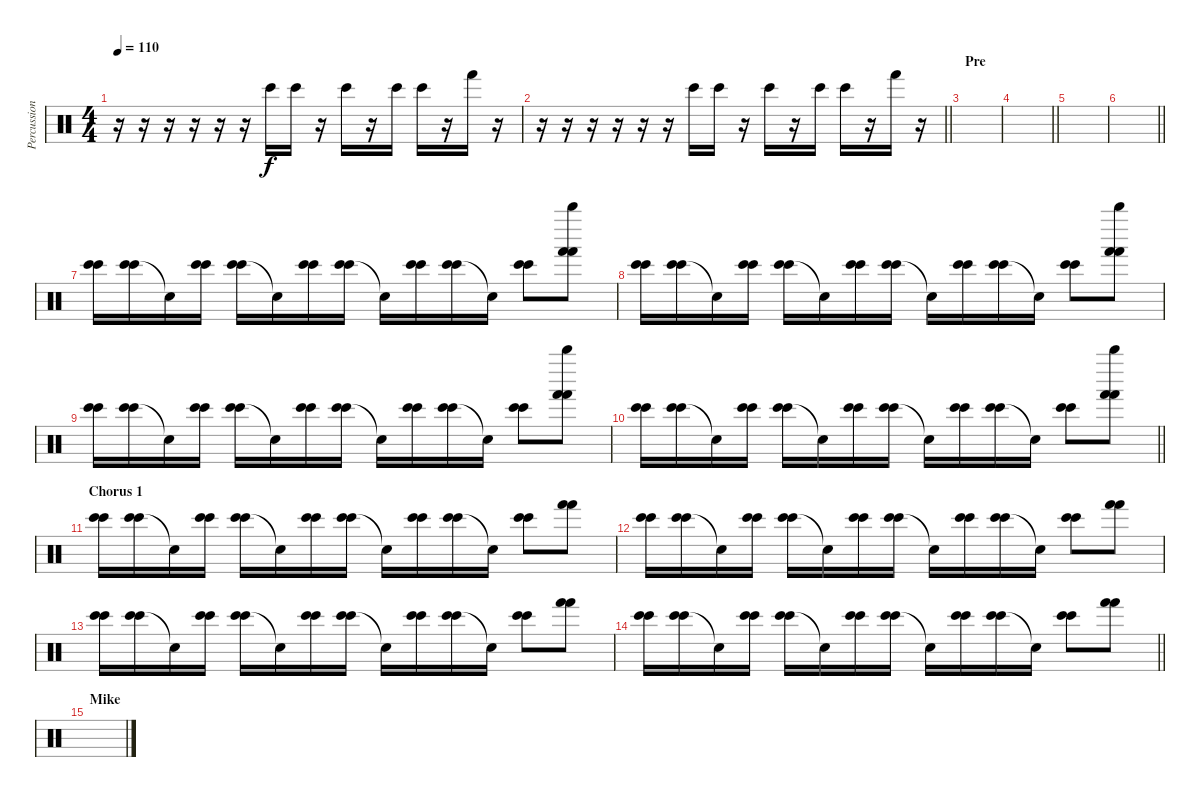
\track ("Percussions" "Percussion") {instrument percussion}
\staff {score}
\articulation defaults
\ts (4 4)
\tempo 110
\clef neutral
\ks c
r.16{dy f} r.16 r.16 r.16 r.16 r.16 "Bongo High (hit)".16 "Bongo High (hit)".16 r.16 "Bongo High (hit)".16 r.16 "Bongo High (hit)".16 "Bongo High (hit)".16 r.16 "Hand (hit)".16 r.16 |
\barLineRight lightlight
r.16 r.16 r.16 r.16 r.16 r.16 "Bongo High (hit)".16 "Bongo High (hit)".16 r.16 "Bongo High (hit)".16 r.16 "Bongo High (hit)".16 "Bongo High (hit)".16 r.16 "Hand (hit)".16 r.16 |
\section ("" "Pre")
|
\barLineRight lightlight
|
|
\barLineRight lightlight
|
\section ("" "")
("Bongo High (hit)" "Bongo High (hit)").16 ("Bongo High (hit)" "Bongo High (hit)").16 "Snare (hit)"{t}.16 ("Bongo High (hit)" "Bongo High (hit)").16 ("Bongo High (hit)" "Bongo High (hit)").16 "Snare (hit)"{t}.16 ("Bongo High (hit)" "Bongo High (hit)").16 ("Bongo High (hit)" "Bongo High (hit)").16 "Snare (hit)"{t}.16 ("Bongo High (hit)" "Bongo High (hit)").16 ("Bongo High (hit)" "Bongo High (hit)").16 "Snare (hit)"{t}.16 ("Bongo High (hit)" "Bongo High (hit)").8 ("Whistle high (hit)" "Hand (hit)" "Hand (hit)").8 |
("Bongo High (hit)" "Bongo High (hit)").16 ("Bongo High (hit)" "Bongo High (hit)").16 "Snare (hit)"{t}.16 ("Bongo High (hit)" "Bongo High (hit)").16 ("Bongo High (hit)" "Bongo High (hit)").16 "Snare (hit)"{t}.16 ("Bongo High (hit)" "Bongo High (hit)").16 ("Bongo High (hit)" "Bongo High (hit)").16 "Snare (hit)"{t}.16 ("Bongo High (hit)" "Bongo High (hit)").16 ("Bongo High (hit)" "Bongo High (hit)").16 "Snare (hit)"{t}.16 ("Bongo High (hit)" "Bongo High (hit)").8 ("Whistle high (hit)" "Hand (hit)" "Hand (hit)").8 |
("Bongo High (hit)" "Bongo High (hit)").16 ("Bongo High (hit)" "Bongo High (hit)").16 "Snare (hit)"{t}.16 ("Bongo High (hit)" "Bongo High (hit)").16 ("Bongo High (hit)" "Bongo High (hit)").16 "Snare (hit)"{t}.16 ("Bongo High (hit)" "Bongo High (hit)").16 ("Bongo High (hit)" "Bongo High (hit)").16 "Snare (hit)"{t}.16 ("Bongo High (hit)" "Bongo High (hit)").16 ("Bongo High (hit)" "Bongo High (hit)").16 "Snare (hit)"{t}.16 ("Bongo High (hit)" "Bongo High (hit)").8 ("Whistle high (hit)" "Hand (hit)" "Hand (hit)").8 |
\barLineRight lightlight
("Bongo High (hit)" "Bongo High (hit)").16 ("Bongo High (hit)" "Bongo High (hit)").16 "Snare (hit)"{t}.16 ("Bongo High (hit)" "Bongo High (hit)").16 ("Bongo High (hit)" "Bongo High (hit)").16 "Snare (hit)"{t}.16 ("Bongo High (hit)" "Bongo High (hit)").16 ("Bongo High (hit)" "Bongo High (hit)").16 "Snare (hit)"{t}.16 ("Bongo High (hit)" "Bongo High (hit)").16 ("Bongo High (hit)" "Bongo High (hit)").16 "Snare (hit)"{t}.16 ("Bongo High (hit)" "Bongo High (hit)").8 ("Whistle high (hit)" "Hand (hit)" "Hand (hit)").8 |
\section ("" "Chorus 1")
("Bongo High (hit)" "Bongo High (hit)").16 ("Bongo High (hit)" "Bongo High (hit)").16 "Snare (hit)"{t}.16 ("Bongo High (hit)" "Bongo High (hit)").16 ("Bongo High (hit)" "Bongo High (hit)").16 "Snare (hit)"{t}.16 ("Bongo High (hit)" "Bongo High (hit)").16 ("Bongo High (hit)" "Bongo High (hit)").16 "Snare (hit)"{t}.16 ("Bongo High (hit)" "Bongo High (hit)").16 ("Bongo High (hit)" "Bongo High (hit)").16 "Snare (hit)"{t}.16 ("Bongo High (hit)" "Bongo High (hit)").8 ("Hand (hit)" "Hand (hit)").8 |
("Bongo High (hit)" "Bongo High (hit)").16 ("Bongo High (hit)" "Bongo High (hit)").16 "Snare (hit)"{t}.16 ("Bongo High (hit)" "Bongo High (hit)").16 ("Bongo High (hit)" "Bongo High (hit)").16 "Snare (hit)"{t}.16 ("Bongo High (hit)" "Bongo High (hit)").16 ("Bongo High (hit)" "Bongo High (hit)").16 "Snare (hit)"{t}.16 ("Bongo High (hit)" "Bongo High (hit)").16 ("Bongo High (hit)" "Bongo High (hit)").16 "Snare (hit)"{t}.16 ("Bongo High (hit)" "Bongo High (hit)").8 ("Hand (hit)" "Hand (hit)").8 |
("Bongo High (hit)" "Bongo High (hit)").16 ("Bongo High (hit)" "Bongo High (hit)").16 "Snare (hit)"{t}.16 ("Bongo High (hit)" "Bongo High (hit)").16 ("Bongo High (hit)" "Bongo High (hit)").16 "Snare (hit)"{t}.16 ("Bongo High (hit)" "Bongo High (hit)").16 ("Bongo High (hit)" "Bongo High (hit)").16 "Snare (hit)"{t}.16 ("Bongo High (hit)" "Bongo High (hit)").16 ("Bongo High (hit)" "Bongo High (hit)").16 "Snare (hit)"{t}.16 ("Bongo High (hit)" "Bongo High (hit)").8 ("Hand (hit)" "Hand (hit)").8 |
\barLineRight lightlight
("Bongo High (hit)" "Bongo High (hit)").16 ("Bongo High (hit)" "Bongo High (hit)").16 "Snare (hit)"{t}.16 ("Bongo High (hit)" "Bongo High (hit)").16 ("Bongo High (hit)" "Bongo High (hit)").16 "Snare (hit)"{t}.16 ("Bongo High (hit)" "Bongo High (hit)").16 ("Bongo High (hit)" "Bongo High (hit)").16 "Snare (hit)"{t}.16 ("Bongo High (hit)" "Bongo High (hit)").16 ("Bongo High (hit)" "Bongo High (hit)").16 "Snare (hit)"{t}.16 ("Bongo High (hit)" "Bongo High (hit)").8 ("Hand (hit)" "Hand (hit)").8 |
\section ("" "Mike")
